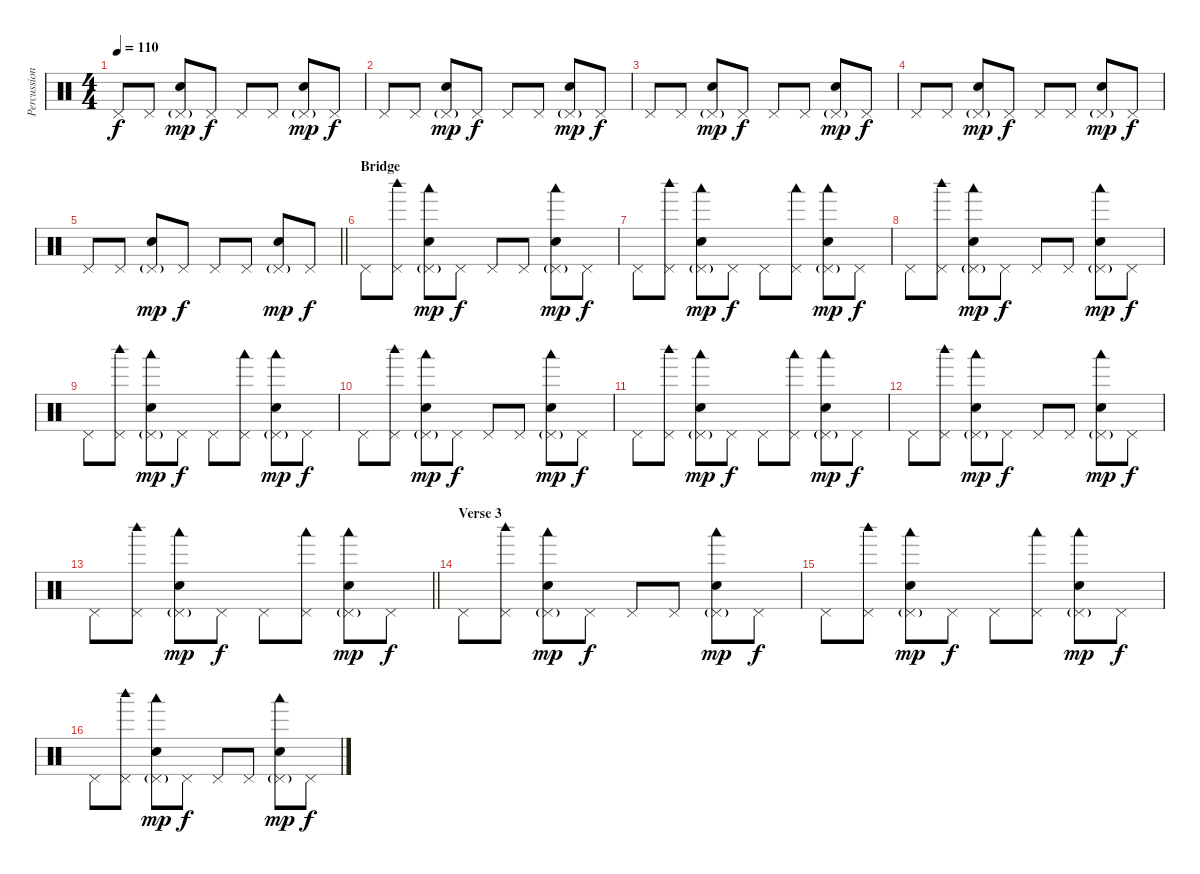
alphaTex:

\track ("Percussion" "Percussion") {instrument percussion}
\staff {score}
\articulation defaults
\ts (4 4)
\tempo 110
\clef neutral
\ks c "Pedal Hi-Hat (hit)".8{dy f} "Pedal Hi-Hat (hit)".8
("Pedal Hi-Hat (hit)"{g} "Electric Snare (hit)").8{dy mp} "Pedal Hi-Hat (hit)".8{dy f} "Pedal Hi-Hat (hit)".8 "Pedal Hi-Hat (hit)".8 ("Pedal Hi-Hat (hit)"{g} "Electric Snare (hit)").8{dy mp} "Pedal Hi-Hat (hit)".8{dy f} |
"Pedal Hi-Hat (hit)".8 "Pedal Hi-Hat (hit)".8 ("Pedal Hi-Hat (hit)"{g} "Electric Snare (hit)").8{dy mp} "Pedal Hi-Hat (hit)".8{dy f} "Pedal Hi-Hat (hit)".8 "Pedal Hi-Hat (hit)".8 ("Pedal Hi-Hat (hit)"{g} "Electric Snare (hit)").8{dy mp} "Pedal Hi-Hat (hit)".8{dy f} |
"Pedal Hi-Hat (hit)".8 "Pedal Hi-Hat (hit)".8 ("Pedal Hi-Hat (hit)"{g} "Electric Snare (hit)").8{dy mp} "Pedal Hi-Hat (hit)".8{dy f} "Pedal Hi-Hat (hit)".8 "Pedal Hi-Hat (hit)".8 ("Pedal Hi-Hat (hit)"{g} "Electric Snare (hit)").8{dy mp} "Pedal Hi-Hat (hit)".8{dy f} |
"Pedal Hi-Hat (hit)".8 "Pedal Hi-Hat (hit)".8 ("Pedal Hi-Hat (hit)"{g} "Electric Snare (hit)").8{dy mp} "Pedal Hi-Hat (hit)".8{dy f} "Pedal Hi-Hat (hit)".8 "Pedal Hi-Hat (hit)".8 ("Pedal Hi-Hat (hit)"{g} "Electric Snare (hit)").8{dy mp} "Pedal Hi-Hat (hit)".8{dy f} |
\barLineRight lightlight "Pedal Hi-Hat (hit)".8 "Pedal Hi-Hat (hit)".8
("Pedal Hi-Hat (hit)"{g} "Electric Snare (hit)").8{dy mp} "Pedal Hi-Hat (hit)".8{dy f} "Pedal Hi-Hat (hit)".8 "Pedal Hi-Hat (hit)".8 ("Pedal Hi-Hat (hit)"{g} "Electric Snare (hit)").8{dy mp} "Pedal Hi-Hat (hit)".8{dy f} |
\section ("" "Bridge")
"Pedal Hi-Hat (hit)".8 ("Woodblock high (hit)" "Pedal Hi-Hat (hit)").8 ("Woodblock low (hit)" "Pedal Hi-Hat (hit)"{g} "Electric Snare (hit)").8{dy mp} "Pedal Hi-Hat (hit)".8{dy f} "Pedal Hi-Hat (hit)".8 "Pedal Hi-Hat (hit)".8 ("Woodblock low (hit)" "Pedal Hi-Hat (hit)"{g} "Electric Snare (hit)").8{dy mp} "Pedal Hi-Hat (hit)".8{dy f} |
"Pedal Hi-Hat (hit)".8 ("Woodblock high (hit)" "Pedal Hi-Hat (hit)").8 ("Woodblock low (hit)" "Pedal Hi-Hat (hit)"{g} "Electric Snare (hit)").8{dy mp} "Pedal Hi-Hat (hit)".8{dy f} "Pedal Hi-Hat (hit)".8 ("Woodblock low (hit)" "Pedal Hi-Hat (hit)").8 ("Woodblock low (hit)" "Pedal Hi-Hat (hit)"{g} "Electric Snare (hit)").8{dy mp} "Pedal Hi-Hat (hit)".8{dy f} |
"Pedal Hi-Hat (hit)".8 ("Woodblock high (hit)" "Pedal Hi-Hat (hit)").8 ("Woodblock low (hit)" "Pedal Hi-Hat (hit)"{g} "Electric Snare (hit)").8{dy mp} "Pedal Hi-Hat (hit)".8{dy f} "Pedal Hi-Hat (hit)".8 "Pedal Hi-Hat (hit)".8 ("Woodblock low (hit)" "Pedal Hi-Hat (hit)"{g} "Electric Snare (hit)").8{dy mp} "Pedal Hi-Hat (hit)".8{dy f} |
"Pedal Hi-Hat (hit)".8 ("Woodblock high (hit)" "Pedal Hi-Hat (hit)").8 ("Woodblock low (hit)" "Pedal Hi-Hat (hit)"{g} "Electric Snare (hit)").8{dy mp} "Pedal Hi-Hat (hit)".8{dy f} "Pedal Hi-Hat (hit)".8 ("Woodblock low (hit)" "Pedal Hi-Hat (hit)").8 ("Woodblock low (hit)" "Pedal Hi-Hat (hit)"{g} "Electric Snare (hit)").8{dy mp} "Pedal Hi-Hat (hit)".8{dy f} |
"Pedal Hi-Hat (hit)".8 ("Woodblock high (hit)" "Pedal Hi-Hat (hit)").8 ("Woodblock low (hit)" "Pedal Hi-Hat (hit)"{g} "Electric Snare (hit)").8{dy mp} "Pedal Hi-Hat (hit)".8{dy f} "Pedal Hi-Hat (hit)".8 "Pedal Hi-Hat (hit)".8 ("Woodblock low (hit)" "Pedal Hi-Hat (hit)"{g} "Electric Snare (hit)").8{dy mp} "Pedal Hi-Hat (hit)".8{dy f} |
"Pedal Hi-Hat (hit)".8 ("Woodblock high (hit)" "Pedal Hi-Hat (hit)").8 ("Woodblock low (hit)" "Pedal Hi-Hat (hit)"{g} "Electric Snare (hit)").8{dy mp} "Pedal Hi-Hat (hit)".8{dy f} "Pedal Hi-Hat (hit)".8 ("Woodblock low (hit)" "Pedal Hi-Hat (hit)").8 ("Woodblock low (hit)" "Pedal Hi-Hat (hit)"{g} "Electric Snare (hit)").8{dy mp} "Pedal Hi-Hat (hit)".8{dy f} |
"Pedal Hi-Hat (hit)".8 ("Woodblock high (hit)" "Pedal Hi-Hat (hit)").8 ("Woodblock low (hit)" "Pedal Hi-Hat (hit)"{g} "Electric Snare (hit)").8{dy mp} "Pedal Hi-Hat (hit)".8{dy f} "Pedal Hi-Hat (hit)".8 "Pedal Hi-Hat (hit)".8 ("Woodblock low (hit)" "Pedal Hi-Hat (hit)"{g} "Electric Snare (hit)").8{dy mp} "Pedal Hi-Hat (hit)".8{dy f} |
\barLineRight lightlight "Pedal Hi-Hat (hit)".8
("Woodblock high (hit)" "Pedal Hi-Hat (hit)").8 ("Woodblock low (hit)" "Pedal Hi-Hat (hit)"{g} "Electric Snare (hit)").8{dy mp} "Pedal Hi-Hat (hit)".8{dy f} "Pedal Hi-Hat (hit)".8 ("Woodblock low (hit)" "Pedal Hi-Hat (hit)").8 ("Woodblock low (hit)" "Pedal Hi-Hat (hit)"{g} "Electric Snare (hit)").8{dy mp} "Pedal Hi-Hat (hit)".8{dy f} |
\section ("" "Verse 3")
"Pedal Hi-Hat (hit)".8 ("Woodblock high (hit)" "Pedal Hi-Hat (hit)").8 ("Woodblock low (hit)" "Pedal Hi-Hat (hit)"{g} "Electric Snare (hit)").8{dy mp} "Pedal Hi-Hat (hit)".8{dy f} "Pedal Hi-Hat (hit)".8 "Pedal Hi-Hat (hit)".8 ("Woodblock low (hit)" "Pedal Hi-Hat (hit)"{g} "Electric Snare (hit)").8{dy mp} "Pedal Hi-Hat (hit)".8{dy f} |
"Pedal Hi-Hat (hit)".8 ("Woodblock high (hit)" "Pedal Hi-Hat (hit)").8 ("Woodblock low (hit)" "Pedal Hi-Hat (hit)"{g} "Electric Snare (hit)").8{dy mp} "Pedal Hi-Hat (hit)".8{dy f} "Pedal Hi-Hat (hit)".8 ("Woodblock low (hit)" "Pedal Hi-Hat (hit)").8 ("Woodblock low (hit)" "Pedal Hi-Hat (hit)"{g} "Electric Snare (hit)").8{dy mp} "Pedal Hi-Hat (hit)".8{dy f} |
"Pedal Hi-Hat (hit)".8 ("Woodblock high (hit)" "Pedal Hi-Hat (hit)").8 ("Woodblock low (hit)" "Pedal Hi-Hat (hit)"{g} "Electric Snare (hit)").8{dy mp} "Pedal Hi-Hat (hit)".8{dy f} "Pedal Hi-Hat (hit)".8 "Pedal Hi-Hat (hit)".8 ("Woodblock low (hit)" "Pedal Hi-Hat (hit)"{g} "Electric Snare (hit)").8{dy mp} "Pedal Hi-Hat (hit)".8{dy f}
